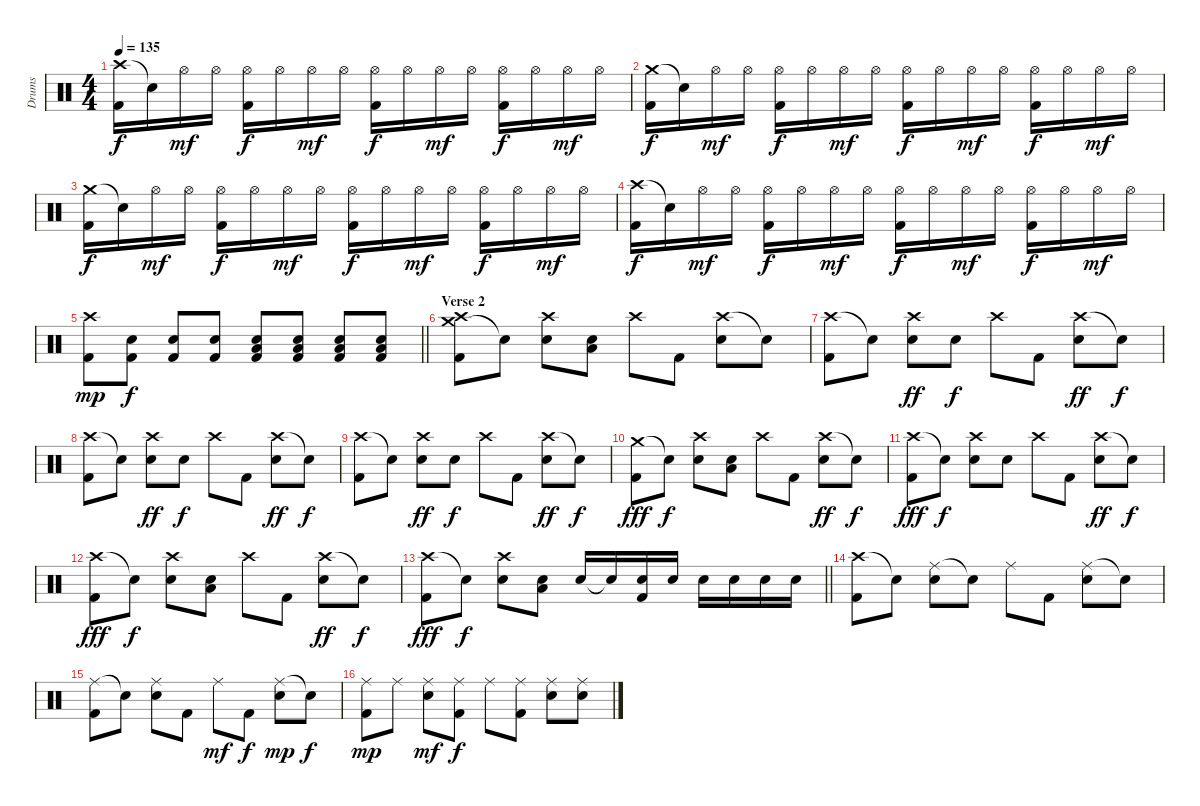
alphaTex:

\track ("Drums" "Drums") {instrument percussion}
\staff {score}
\articulation defaults
\ts (4 4)
\tempo 135
\clef neutral
\ks c
("Crash high (hit)" "Kick (hit) 2").16{dy f} "Snare (hit)"{t}.16 "Hi-Hat (open)".16{dy mf} "Hi-Hat (open)".16 ("Hi-Hat (open)" "Kick (hit) 2").16{dy f} "Hi-Hat (open)".16 "Hi-Hat (open)".16{dy mf} "Hi-Hat (open)".16 ("Hi-Hat (open)" "Kick (hit) 2").16{dy f} "Hi-Hat (open)".16 "Hi-Hat (open)".16{dy mf} "Hi-Hat (open)".16 ("Hi-Hat (open)" "Kick (hit) 2").16{dy f} "Hi-Hat (open)".16 "Hi-Hat (open)".16{dy mf} "Hi-Hat (open)".16 |
("Crash medium (hit)" "Kick (hit) 2").16{dy f} "Snare (hit)"{t}.16 "Hi-Hat (open)".16{dy mf} "Hi-Hat (open)".16 ("Hi-Hat (open)" "Kick (hit) 2").16{dy f} "Hi-Hat (open)".16 "Hi-Hat (open)".16{dy mf} "Hi-Hat (open)".16 ("Hi-Hat (open)" "Kick (hit) 2").16{dy f} "Hi-Hat (open)".16 "Hi-Hat (open)".16{dy mf} "Hi-Hat (open)".16 ("Hi-Hat (open)" "Kick (hit) 2").16{dy f} "Hi-Hat (open)".16 "Hi-Hat (open)".16{dy mf} "Hi-Hat (open)".16 |
("Crash medium (hit)" "Kick (hit) 2").16{dy f} "Snare (hit)"{t}.16 "Hi-Hat (open)".16{dy mf} "Hi-Hat (open)".16 ("Hi-Hat (open)" "Kick (hit) 2").16{dy f} "Hi-Hat (open)".16 "Hi-Hat (open)".16{dy mf} "Hi-Hat (open)".16 ("Hi-Hat (open)" "Kick (hit) 2").16{dy f} "Hi-Hat (open)".16 "Hi-Hat (open)".16{dy mf} "Hi-Hat (open)".16 ("Hi-Hat (open)" "Kick (hit) 2").16{dy f} "Hi-Hat (open)".16 "Hi-Hat (open)".16{dy mf} "Hi-Hat (open)".16 |
("Crash high (hit)" "Kick (hit) 2").16{dy f} "Snare (hit)"{t}.16 "Hi-Hat (open)".16{dy mf} "Hi-Hat (open)".16 ("Hi-Hat (open)" "Kick (hit) 2").16{dy f} "Hi-Hat (open)".16 "Hi-Hat (open)".16{dy mf} "Hi-Hat (open)".16 ("Hi-Hat (open)" "Kick (hit) 2").16{dy f} "Hi-Hat (open)".16 "Hi-Hat (open)".16{dy mf} "Hi-Hat (open)".16 ("Hi-Hat (open)" "Kick (hit) 2").16{dy f} "Hi-Hat (open)".16 "Hi-Hat (open)".16{dy mf} "Hi-Hat (open)".16 |
\barLineRight lightlight
("Crash high (hit)" "Kick (hit) 2").8{dy mp} ("Electric Snare (hit)" "Kick (hit) 2").8{dy f} ("Electric Snare (hit)" "Kick (hit) 2").8 ("Electric Snare (hit)" "Kick (hit) 2").8 ("Electric Snare (hit)" "Low Floor Tom (hit)" "Kick (hit) 2").8 ("Electric Snare (hit)" "Low Floor Tom (hit)" "Kick (hit) 2").8 ("Electric Snare (hit)" "Low Floor Tom (hit)" "Kick (hit) 2").8 ("Electric Snare (hit)" "Low Floor Tom (hit)" "Kick (hit) 2").8 |
\section ("" "Verse 2")
("Crash medium (hit)" "Crash high (hit)" "Kick (hit) 2").8 "Snare (hit)"{t}.8 ("Crash high (hit)" "Snare (hit) 2").8 ("Snare (hit) 2" "Low Tom (hit)").8 "Crash high (hit)".8 "Kick (hit) 2".8 ("Crash high (hit)" "Snare (hit) 2").8 "Snare (hit)"{t}.8 |
("Crash high (hit)" "Kick (hit) 2").8 "Snare (hit)"{t}.8 ("Crash high (hit)" "Snare (hit) 2").8{dy ff} "Snare (hit) 2".8{dy f} "Crash high (hit)".8 "Kick (hit) 2".8 ("Crash high (hit)" "Snare (hit) 2").8{dy ff} "Snare (hit)"{t}.8{dy f} |
("Crash high (hit)" "Kick (hit) 2").8 "Snare (hit)"{t}.8 ("Crash high (hit)" "Snare (hit) 2").8{dy ff} "Snare (hit) 2".8{dy f} "Crash high (hit)".8 "Kick (hit) 2".8 ("Crash high (hit)" "Snare (hit) 2").8{dy ff} "Snare (hit)"{t}.8{dy f} |
("Crash high (hit)" "Kick (hit) 2").8 "Snare (hit)"{t}.8 ("Crash high (hit)" "Snare (hit) 2").8{dy ff} "Snare (hit) 2".8{dy f} "Crash high (hit)".8 "Kick (hit) 2".8 ("Crash high (hit)" "Snare (hit) 2").8{dy ff} "Snare (hit)"{t}.8{dy f} |
("Crash medium (hit)" "Kick (hit) 2").8{dy fff} "Snare (hit)"{t}.8{dy f} ("Crash high (hit)" "Snare (hit) 2").8 ("Snare (hit) 2" "Low Tom (hit)").8 "Crash high (hit)".8 "Kick (hit) 2".8 ("Crash high (hit)" "Snare (hit) 2").8{dy ff} "Snare (hit)"{t}.8{dy f} |
("Crash high (hit)" "Kick (hit) 2").8{dy fff} "Snare (hit)"{t}.8{dy f} ("Crash high (hit)" "Snare (hit) 2").8 "Snare (hit) 2".8 "Crash high (hit)".8 "Kick (hit) 2".8 ("Crash high (hit)" "Snare (hit) 2").8{dy ff} "Snare (hit)"{t}.8{dy f} |
("Crash high (hit)" "Kick (hit) 2").8{dy fff} "Snare (hit)"{t}.8{dy f} ("Crash high (hit)" "Snare (hit) 2").8 ("Snare (hit) 2" "Low Tom (hit)").8 "Crash high (hit)".8 "Kick (hit) 2".8 ("Crash high (hit)" "Snare (hit) 2").8{dy ff} "Snare (hit)"{t}.8{dy f} |
\barLineRight lightlight
("Crash high (hit)" "Kick (hit) 2").8{dy fff} "Snare (hit)"{t}.8{dy f} ("Crash high (hit)" "Snare (hit) 2").8 ("Snare (hit) 2" "Low Tom (hit)").8 "Snare (hit) 2".16 "Snare (hit)"{t}.16 ("Snare (hit) 2" "Kick (hit) 2").16 "Snare (hit) 2".16 "Snare (hit) 2".16 "Snare (hit) 2".16 "Snare (hit) 2".16 "Snare (hit) 2".16 |
("Crash high (hit)" "Kick (hit) 2").8 "Snare (hit)"{t}.8 ("Ride (middle)" "Snare (hit) 2").8 "Snare (hit)"{t}.8 "Ride (middle)".8 "Kick (hit) 2".8 ("Ride (middle)" "Snare (hit) 2").8 "Snare (hit)"{t}.8 |
("Ride (middle)" "Kick (hit) 2").8 "Snare (hit)"{t}.8 ("Ride (middle)" "Snare (hit) 2").8 "Kick (hit) 2".8 "Ride (middle)".8{dy mf} "Kick (hit) 2".8{dy f} ("Ride (middle)" "Snare (hit) 2").8{dy mp} "Snare (hit)"{t}.8{dy f} |
("Ride (middle)" "Kick (hit) 2").8{dy mp} "Ride (middle)".8 ("Ride (middle)" "Snare (hit) 2").8{dy mf} ("Ride (middle)" "Kick (hit) 2").8{dy f} "Ride (middle)".8 ("Ride (middle)" "Kick (hit) 2").8 ("Ride (middle)" "Snare (hit) 2").8 ("Ride (middle)" "Snare (hit) 2").8
